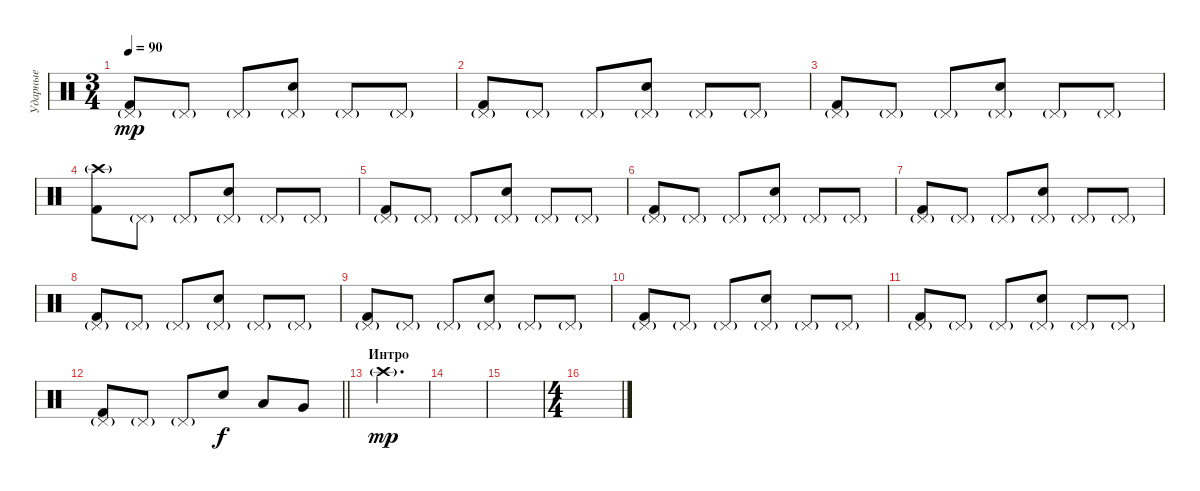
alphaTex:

\track ("Ударные" "Ударные") {instrument percussion}
\staff {score}
\articulation defaults
\ts (3 4)
\tempo 90
\clef neutral
\ks c
("Kick (hit) 2" "Pedal Hi-Hat (hit)"{g}).8{dy mp} "Pedal Hi-Hat (hit)"{g}.8 "Pedal Hi-Hat (hit)"{g}.8 ("Electric Snare (hit)" "Pedal Hi-Hat (hit)"{g}).8 "Pedal Hi-Hat (hit)"{g}.8 "Pedal Hi-Hat (hit)"{g}.8 |
("Kick (hit) 2" "Pedal Hi-Hat (hit)"{g}).8 "Pedal Hi-Hat (hit)"{g}.8 "Pedal Hi-Hat (hit)"{g}.8 ("Electric Snare (hit)" "Pedal Hi-Hat (hit)"{g}).8 "Pedal Hi-Hat (hit)"{g}.8 "Pedal Hi-Hat (hit)"{g}.8 |
("Kick (hit) 2" "Pedal Hi-Hat (hit)"{g}).8 "Pedal Hi-Hat (hit)"{g}.8 "Pedal Hi-Hat (hit)"{g}.8 ("Electric Snare (hit)" "Pedal Hi-Hat (hit)"{g}).8 "Pedal Hi-Hat (hit)"{g}.8 "Pedal Hi-Hat (hit)"{g}.8 |
("Kick (hit) 2" "Crash high (hit)"{g}).8 "Pedal Hi-Hat (hit)"{g}.8 "Pedal Hi-Hat (hit)"{g}.8 ("Electric Snare (hit)" "Pedal Hi-Hat (hit)"{g}).8 "Pedal Hi-Hat (hit)"{g}.8 "Pedal Hi-Hat (hit)"{g}.8 |
("Kick (hit) 2" "Pedal Hi-Hat (hit)"{g}).8 "Pedal Hi-Hat (hit)"{g}.8 "Pedal Hi-Hat (hit)"{g}.8 ("Electric Snare (hit)" "Pedal Hi-Hat (hit)"{g}).8 "Pedal Hi-Hat (hit)"{g}.8 "Pedal Hi-Hat (hit)"{g}.8 |
("Kick (hit) 2" "Pedal Hi-Hat (hit)"{g}).8 "Pedal Hi-Hat (hit)"{g}.8 "Pedal Hi-Hat (hit)"{g}.8 ("Electric Snare (hit)" "Pedal Hi-Hat (hit)"{g}).8 "Pedal Hi-Hat (hit)"{g}.8 "Pedal Hi-Hat (hit)"{g}.8 |
("Kick (hit) 2" "Pedal Hi-Hat (hit)"{g}).8 "Pedal Hi-Hat (hit)"{g}.8 "Pedal Hi-Hat (hit)"{g}.8 ("Electric Snare (hit)" "Pedal Hi-Hat (hit)"{g}).8 "Pedal Hi-Hat (hit)"{g}.8 "Pedal Hi-Hat (hit)"{g}.8 |
("Kick (hit) 2" "Pedal Hi-Hat (hit)"{g}).8 "Pedal Hi-Hat (hit)"{g}.8 "Pedal Hi-Hat (hit)"{g}.8 ("Electric Snare (hit)" "Pedal Hi-Hat (hit)"{g}).8 "Pedal Hi-Hat (hit)"{g}.8 "Pedal Hi-Hat (hit)"{g}.8 |
("Kick (hit) 2" "Pedal Hi-Hat (hit)"{g}).8 "Pedal Hi-Hat (hit)"{g}.8 "Pedal Hi-Hat (hit)"{g}.8 ("Electric Snare (hit)" "Pedal Hi-Hat (hit)"{g}).8 "Pedal Hi-Hat (hit)"{g}.8 "Pedal Hi-Hat (hit)"{g}.8 |
("Kick (hit) 2" "Pedal Hi-Hat (hit)"{g}).8 "Pedal Hi-Hat (hit)"{g}.8 "Pedal Hi-Hat (hit)"{g}.8 ("Electric Snare (hit)" "Pedal Hi-Hat (hit)"{g}).8 "Pedal Hi-Hat (hit)"{g}.8 "Pedal Hi-Hat (hit)"{g}.8 |
("Kick (hit) 2" "Pedal Hi-Hat (hit)"{g}).8 "Pedal Hi-Hat (hit)"{g}.8 "Pedal Hi-Hat (hit)"{g}.8 ("Electric Snare (hit)" "Pedal Hi-Hat (hit)"{g}).8 "Pedal Hi-Hat (hit)"{g}.8 "Pedal Hi-Hat (hit)"{g}.8 |
\barLineRight lightlight
("Kick (hit) 2" "Pedal Hi-Hat (hit)"{g}).8 "Pedal Hi-Hat (hit)"{g}.8 "Pedal Hi-Hat (hit)"{g}.8 "Electric Snare (hit)".8{dy f} "Low Tom (hit)".8 "Very Low Tom (hit)".8 |
\section ("" "Интро")
"Crash high (hit)"{g}.2{d dy mp} |
|
|
\ts (4 4)
